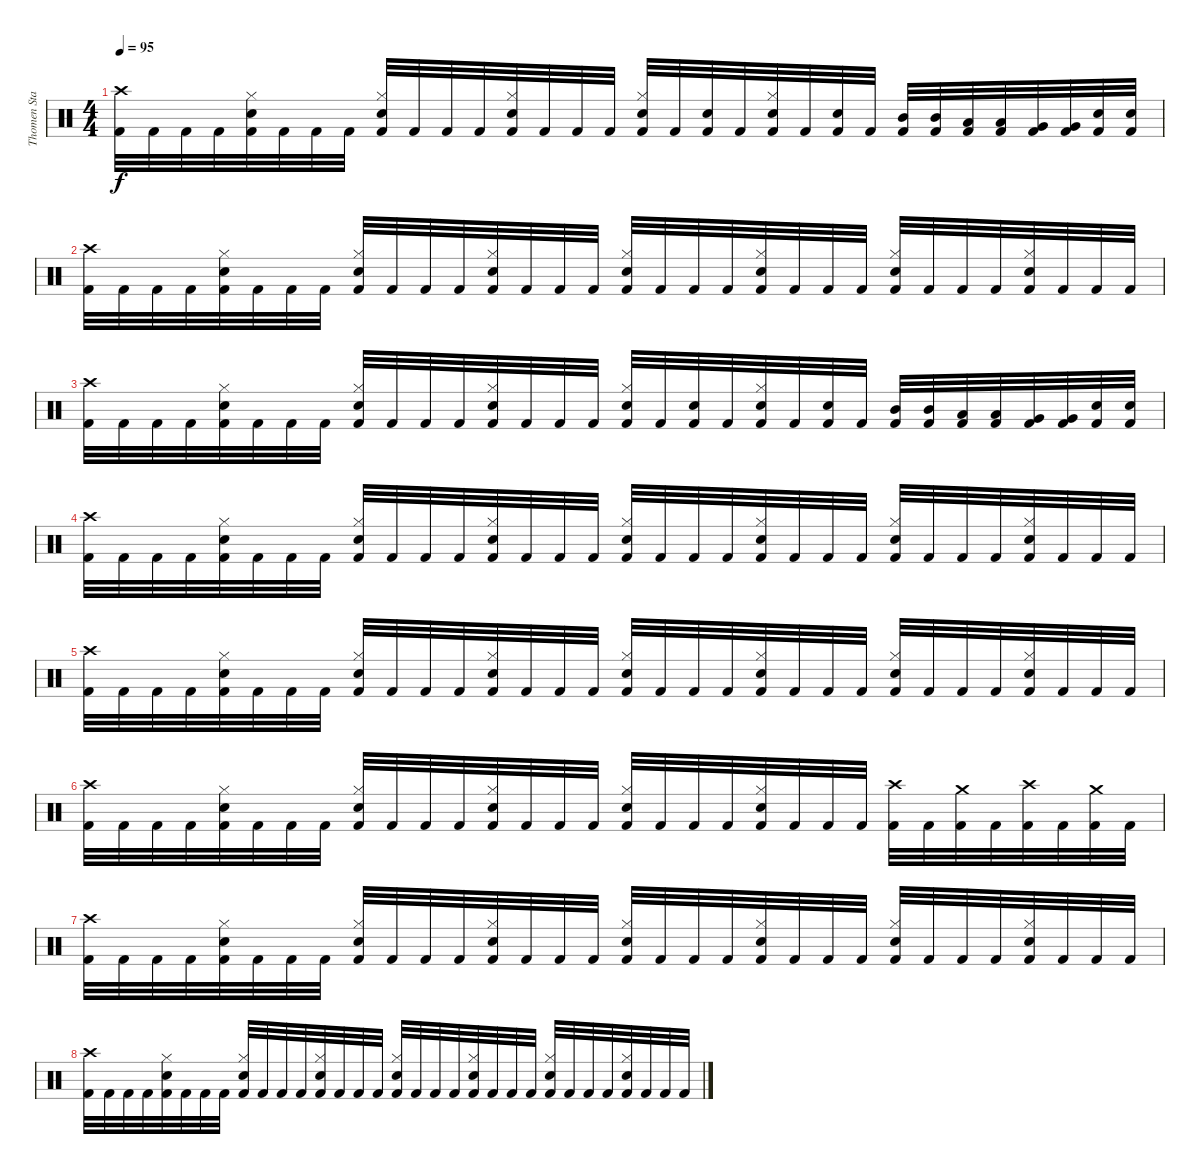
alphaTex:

\track ("Thomen Stauch" "Thomen Sta") {instrument percussion}
\staff {score}
\articulation defaults
\ts (4 4)
\tempo 95
\clef neutral
\ks c
("Crash high (hit)" "Kick (hit) 2").32{dy f} "Kick (hit) 2".32 "Kick (hit) 2".32 "Kick (hit) 2".32 ("Hi-Hat (closed)" "Snare (hit) 2" "Kick (hit) 2").32 "Kick (hit) 2".32 "Kick (hit) 2".32 "Kick (hit) 2".32 ("Hi-Hat (closed)" "Snare (hit) 2" "Kick (hit) 2").32 "Kick (hit) 2".32 "Kick (hit) 2".32 "Kick (hit) 2".32 ("Hi-Hat (closed)" "Snare (hit) 2" "Kick (hit) 2").32 "Kick (hit) 2".32 "Kick (hit) 2".32 "Kick (hit) 2".32 ("Hi-Hat (closed)" "Snare (hit) 2" "Kick (hit) 2").32 "Kick (hit) 2".32 ("Snare (hit) 2" "Kick (hit) 2").32 "Kick (hit) 2".32 ("Hi-Hat (closed)" "Snare (hit) 2" "Kick (hit) 2").32 "Kick (hit) 2".32 ("Snare (hit) 2" "Kick (hit) 2").32 "Kick (hit) 2".32 ("Mid Tom (hit)" "Kick (hit) 2").32 ("Mid Tom (hit)" "Kick (hit) 2").32 ("Low Tom (hit)" "Kick (hit) 2").32 ("Low Tom (hit)" "Kick (hit) 2").32 ("Very Low Tom (hit)" "Kick (hit) 2").32 ("Very Low Tom (hit)" "Kick (hit) 2").32 ("Snare (hit) 2" "Kick (hit) 2").32 ("Snare (hit) 2" "Kick (hit) 2").32 |
("Crash high (hit)" "Kick (hit) 2").32 "Kick (hit) 2".32 "Kick (hit) 2".32 "Kick (hit) 2".32 ("Hi-Hat (closed)" "Snare (hit) 2" "Kick (hit) 2").32 "Kick (hit) 2".32 "Kick (hit) 2".32 "Kick (hit) 2".32 ("Hi-Hat (closed)" "Snare (hit) 2" "Kick (hit) 2").32 "Kick (hit) 2".32 "Kick (hit) 2".32 "Kick (hit) 2".32 ("Hi-Hat (closed)" "Snare (hit) 2" "Kick (hit) 2").32 "Kick (hit) 2".32 "Kick (hit) 2".32 "Kick (hit) 2".32 ("Hi-Hat (closed)" "Snare (hit) 2" "Kick (hit) 2").32 "Kick (hit) 2".32 "Kick (hit) 2".32 "Kick (hit) 2".32 ("Hi-Hat (closed)" "Snare (hit) 2" "Kick (hit) 2").32 "Kick (hit) 2".32 "Kick (hit) 2".32 "Kick (hit) 2".32 ("Hi-Hat (closed)" "Snare (hit) 2" "Kick (hit) 2").32 "Kick (hit) 2".32 "Kick (hit) 2".32 "Kick (hit) 2".32 ("Hi-Hat (closed)" "Snare (hit) 2" "Kick (hit) 2").32 "Kick (hit) 2".32 "Kick (hit) 2".32 "Kick (hit) 2".32 |
("Crash high (hit)" "Kick (hit) 2").32 "Kick (hit) 2".32 "Kick (hit) 2".32 "Kick (hit) 2".32 ("Hi-Hat (closed)" "Snare (hit) 2" "Kick (hit) 2").32 "Kick (hit) 2".32 "Kick (hit) 2".32 "Kick (hit) 2".32 ("Hi-Hat (closed)" "Snare (hit) 2" "Kick (hit) 2").32 "Kick (hit) 2".32 "Kick (hit) 2".32 "Kick (hit) 2".32 ("Hi-Hat (closed)" "Snare (hit) 2" "Kick (hit) 2").32 "Kick (hit) 2".32 "Kick (hit) 2".32 "Kick (hit) 2".32 ("Hi-Hat (closed)" "Snare (hit) 2" "Kick (hit) 2").32 "Kick (hit) 2".32 ("Snare (hit) 2" "Kick (hit) 2").32 "Kick (hit) 2".32 ("Hi-Hat (closed)" "Snare (hit) 2" "Kick (hit) 2").32 "Kick (hit) 2".32 ("Snare (hit) 2" "Kick (hit) 2").32 "Kick (hit) 2".32 ("Mid Tom (hit)" "Kick (hit) 2").32 ("Mid Tom (hit)" "Kick (hit) 2").32 ("Low Tom (hit)" "Kick (hit) 2").32 ("Low Tom (hit)" "Kick (hit) 2").32 ("Very Low Tom (hit)" "Kick (hit) 2").32 ("Very Low Tom (hit)" "Kick (hit) 2").32 ("Snare (hit) 2" "Kick (hit) 2").32 ("Snare (hit) 2" "Kick (hit) 2").32 |
("Crash high (hit)" "Kick (hit) 2").32 "Kick (hit) 2".32 "Kick (hit) 2".32 "Kick (hit) 2".32 ("Hi-Hat (closed)" "Snare (hit) 2" "Kick (hit) 2").32 "Kick (hit) 2".32 "Kick (hit) 2".32 "Kick (hit) 2".32 ("Hi-Hat (closed)" "Snare (hit) 2" "Kick (hit) 2").32 "Kick (hit) 2".32 "Kick (hit) 2".32 "Kick (hit) 2".32 ("Hi-Hat (closed)" "Snare (hit) 2" "Kick (hit) 2").32 "Kick (hit) 2".32 "Kick (hit) 2".32 "Kick (hit) 2".32 ("Hi-Hat (closed)" "Snare (hit) 2" "Kick (hit) 2").32 "Kick (hit) 2".32 "Kick (hit) 2".32 "Kick (hit) 2".32 ("Hi-Hat (closed)" "Snare (hit) 2" "Kick (hit) 2").32 "Kick (hit) 2".32 "Kick (hit) 2".32 "Kick (hit) 2".32 ("Hi-Hat (closed)" "Snare (hit) 2" "Kick (hit) 2").32 "Kick (hit) 2".32 "Kick (hit) 2".32 "Kick (hit) 2".32 ("Hi-Hat (closed)" "Snare (hit) 2" "Kick (hit) 2").32 "Kick (hit) 2".32 "Kick (hit) 2".32 "Kick (hit) 2".32 |
("Crash high (hit)" "Kick (hit) 2").32 "Kick (hit) 2".32 "Kick (hit) 2".32 "Kick (hit) 2".32 ("Hi-Hat (closed)" "Snare (hit) 2" "Kick (hit) 2").32 "Kick (hit) 2".32 "Kick (hit) 2".32 "Kick (hit) 2".32 ("Hi-Hat (closed)" "Snare (hit) 2" "Kick (hit) 2").32 "Kick (hit) 2".32 "Kick (hit) 2".32 "Kick (hit) 2".32 ("Hi-Hat (closed)" "Snare (hit) 2" "Kick (hit) 2").32 "Kick (hit) 2".32 "Kick (hit) 2".32 "Kick (hit) 2".32 ("Hi-Hat (closed)" "Snare (hit) 2" "Kick (hit) 2").32 "Kick (hit) 2".32 "Kick (hit) 2".32 "Kick (hit) 2".32 ("Hi-Hat (closed)" "Snare (hit) 2" "Kick (hit) 2").32 "Kick (hit) 2".32 "Kick (hit) 2".32 "Kick (hit) 2".32 ("Hi-Hat (closed)" "Snare (hit) 2" "Kick (hit) 2").32 "Kick (hit) 2".32 "Kick (hit) 2".32 "Kick (hit) 2".32 ("Hi-Hat (closed)" "Snare (hit) 2" "Kick (hit) 2").32 "Kick (hit) 2".32 "Kick (hit) 2".32 "Kick (hit) 2".32 |
("Crash high (hit)" "Kick (hit) 2").32 "Kick (hit) 2".32 "Kick (hit) 2".32 "Kick (hit) 2".32 ("Hi-Hat (closed)" "Snare (hit) 2" "Kick (hit) 2").32 "Kick (hit) 2".32 "Kick (hit) 2".32 "Kick (hit) 2".32 ("Hi-Hat (closed)" "Snare (hit) 2" "Kick (hit) 2").32 "Kick (hit) 2".32 "Kick (hit) 2".32 "Kick (hit) 2".32 ("Hi-Hat (closed)" "Snare (hit) 2" "Kick (hit) 2").32 "Kick (hit) 2".32 "Kick (hit) 2".32 "Kick (hit) 2".32 ("Hi-Hat (closed)" "Snare (hit) 2" "Kick (hit) 2").32 "Kick (hit) 2".32 "Kick (hit) 2".32 "Kick (hit) 2".32 ("Hi-Hat (closed)" "Snare (hit) 2" "Kick (hit) 2").32 "Kick (hit) 2".32 "Kick (hit) 2".32 "Kick (hit) 2".32 ("Crash high (hit)" "Kick (hit) 2").32 "Kick (hit) 2".32 ("Crash medium (hit)" "Kick (hit) 2").32 "Kick (hit) 2".32 ("Crash high (hit)" "Kick (hit) 2").32 "Kick (hit) 2".32 ("Crash medium (hit)" "Kick (hit) 2").32 "Kick (hit) 2".32 |
("Crash high (hit)" "Kick (hit) 2").32 "Kick (hit) 2".32 "Kick (hit) 2".32 "Kick (hit) 2".32 ("Hi-Hat (closed)" "Snare (hit) 2" "Kick (hit) 2").32 "Kick (hit) 2".32 "Kick (hit) 2".32 "Kick (hit) 2".32 ("Hi-Hat (closed)" "Snare (hit) 2" "Kick (hit) 2").32 "Kick (hit) 2".32 "Kick (hit) 2".32 "Kick (hit) 2".32 ("Hi-Hat (closed)" "Snare (hit) 2" "Kick (hit) 2").32 "Kick (hit) 2".32 "Kick (hit) 2".32 "Kick (hit) 2".32 ("Hi-Hat (closed)" "Snare (hit) 2" "Kick (hit) 2").32 "Kick (hit) 2".32 "Kick (hit) 2".32 "Kick (hit) 2".32 ("Hi-Hat (closed)" "Snare (hit) 2" "Kick (hit) 2").32 "Kick (hit) 2".32 "Kick (hit) 2".32 "Kick (hit) 2".32 ("Hi-Hat (closed)" "Snare (hit) 2" "Kick (hit) 2").32 "Kick (hit) 2".32 "Kick (hit) 2".32 "Kick (hit) 2".32 ("Hi-Hat (closed)" "Snare (hit) 2" "Kick (hit) 2").32 "Kick (hit) 2".32 "Kick (hit) 2".32 "Kick (hit) 2".32 |
("Crash high (hit)" "Kick (hit) 2").32 "Kick (hit) 2".32 "Kick (hit) 2".32 "Kick (hit) 2".32 ("Hi-Hat (closed)" "Snare (hit) 2" "Kick (hit) 2").32 "Kick (hit) 2".32 "Kick (hit) 2".32 "Kick (hit) 2".32 ("Hi-Hat (closed)" "Snare (hit) 2" "Kick (hit) 2").32 "Kick (hit) 2".32 "Kick (hit) 2".32 "Kick (hit) 2".32 ("Hi-Hat (closed)" "Snare (hit) 2" "Kick (hit) 2").32 "Kick (hit) 2".32 "Kick (hit) 2".32 "Kick (hit) 2".32 ("Hi-Hat (closed)" "Snare (hit) 2" "Kick (hit) 2").32 "Kick (hit) 2".32 "Kick (hit) 2".32 "Kick (hit) 2".32 ("Hi-Hat (closed)" "Snare (hit) 2" "Kick (hit) 2").32 "Kick (hit) 2".32 "Kick (hit) 2".32 "Kick (hit) 2".32 ("Hi-Hat (closed)" "Snare (hit) 2" "Kick (hit) 2").32 "Kick (hit) 2".32 "Kick (hit) 2".32 "Kick (hit) 2".32 ("Hi-Hat (closed)" "Snare (hit) 2" "Kick (hit) 2").32 "Kick (hit) 2".32 "Kick (hit) 2".32 "Kick (hit) 2".32
